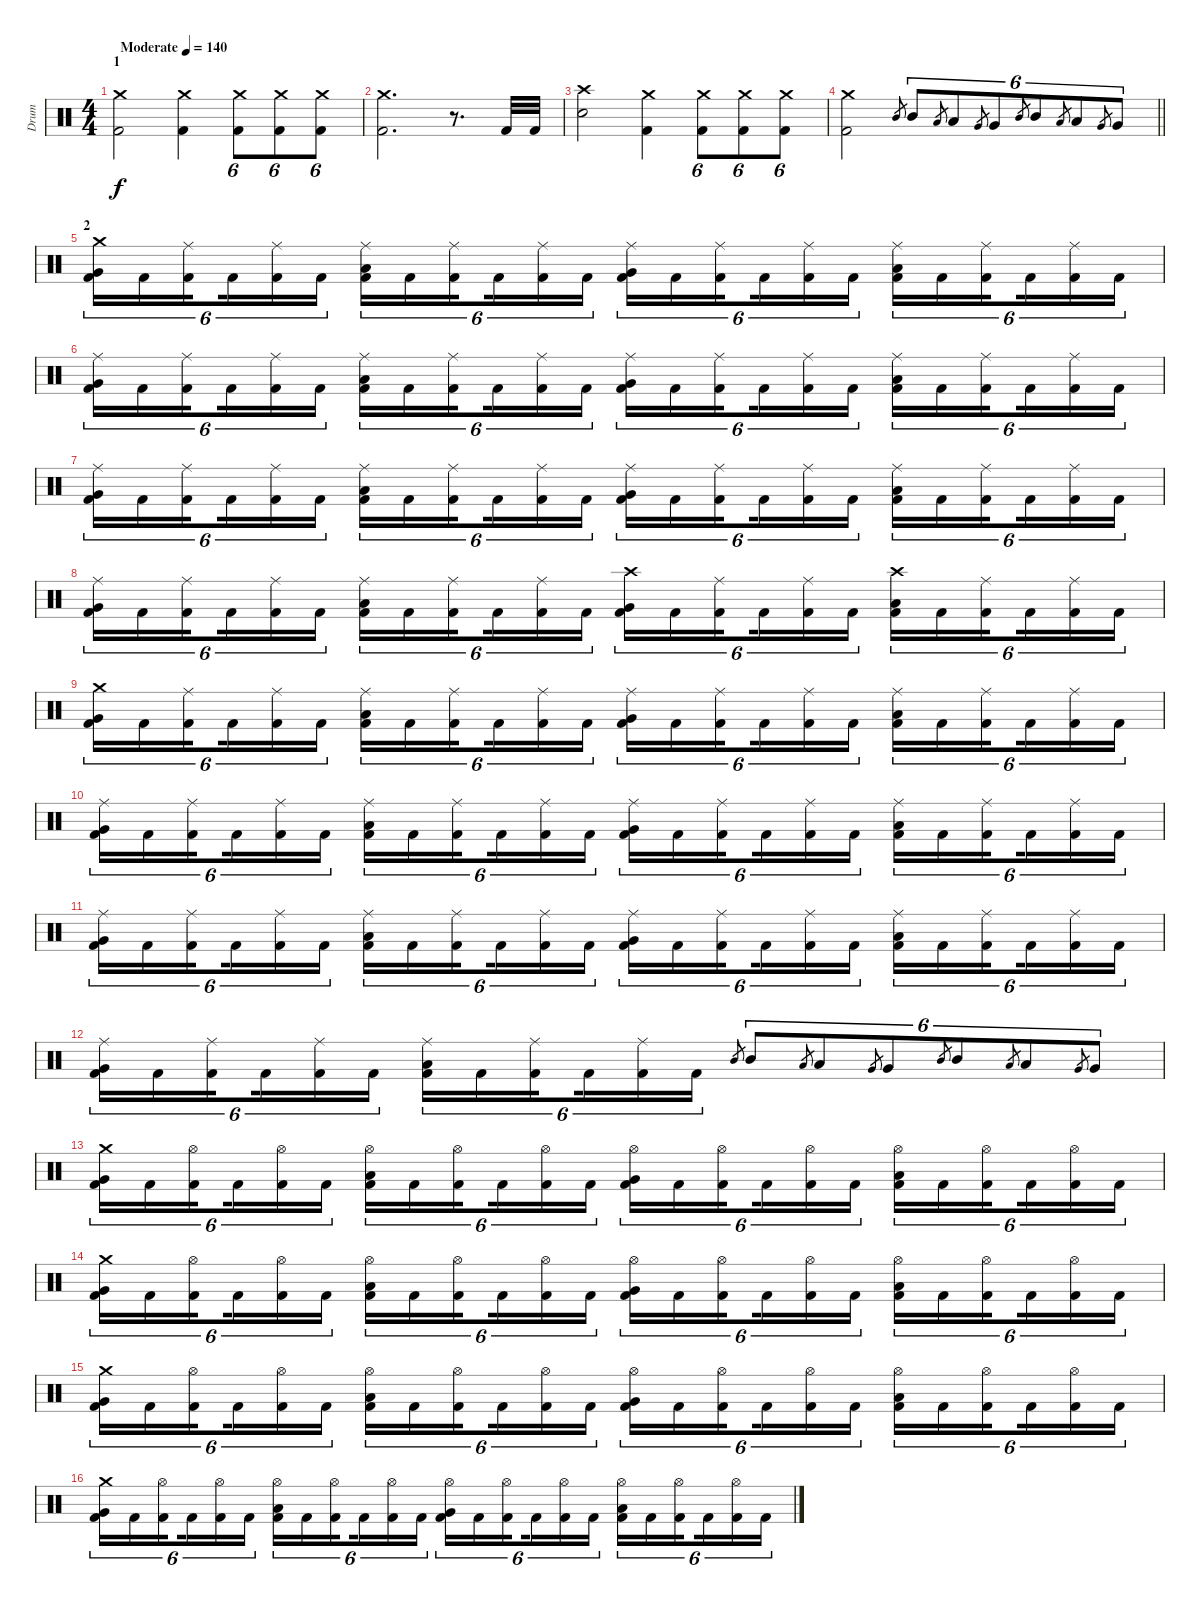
\track ("Drum" "Drum") {instrument percussion}
\staff {score}
\articulation defaults
\ts (4 4)
\section ("" "1")
\tempo (140 "Moderate")
\clef neutral
\ks c
("Crash medium (hit)" "Kick (hit) 2").2{dy f} ("Crash medium (hit)" "Kick (hit) 2").4 ("Crash medium (hit)" "Kick (hit) 2").8{tu (6 4)} ("Crash medium (hit)" "Kick (hit) 2").8{tu (6 4)} ("Crash medium (hit)" "Kick (hit) 2").8{tu (6 4)} |
("Crash medium (hit)" "Kick (hit) 2").2{d} r.8{d} "Kick (hit) 2".32 "Kick (hit) 2".32 |
("Crash high (hit)" "Electric Snare (hit)").2 ("Crash medium (hit)" "Kick (hit) 2").4 ("Crash medium (hit)" "Kick (hit) 2").8{tu (6 4)} ("Crash medium (hit)" "Kick (hit) 2").8{tu (6 4)} ("Crash medium (hit)" "Kick (hit) 2").8{tu (6 4)} |
\barLineRight lightlight
("Crash medium (hit)" "Kick (hit) 2").2 "Mid Tom (hit)".8{gr} "Mid Tom (hit)".8{tu (6 4)} "Low Tom (hit)".8{gr} "Low Tom (hit)".8{tu (6 4)} "Very Low Tom (hit)".8{gr} "Very Low Tom (hit)".8{tu (6 4)} "Mid Tom (hit)".8{gr} "Mid Tom (hit)".8{tu (6 4)} "Low Tom (hit)".8{gr} "Low Tom (hit)".8{tu (6 4)} "Very Low Tom (hit)".8{gr} "Very Low Tom (hit)".8{tu (6 4)} |
\section ("" "2")
("Crash medium (hit)" "Very Low Tom (hit)" "Kick (hit) 2").16{tu (6 4)} "Kick (hit) 2".16{tu (6 4)} ("Ride (middle)" "Kick (hit) 2").16{tu (6 4) beam splitsecondary} "Kick (hit) 2".16{tu (6 4)} ("Ride (middle)" "Kick (hit) 2").16{tu (6 4)} "Kick (hit) 2".16{tu (6 4)} ("Ride (middle)" "Low Tom (hit)" "Kick (hit) 2").16{tu (6 4)} "Kick (hit) 2".16{tu (6 4)} ("Ride (middle)" "Kick (hit) 2").16{tu (6 4) beam splitsecondary} "Kick (hit) 2".16{tu (6 4)} ("Ride (middle)" "Kick (hit) 2").16{tu (6 4)} "Kick (hit) 2".16{tu (6 4)} ("Ride (middle)" "Very Low Tom (hit)" "Kick (hit) 2").16{tu (6 4)} "Kick (hit) 2".16{tu (6 4)} ("Ride (middle)" "Kick (hit) 2").16{tu (6 4) beam splitsecondary} "Kick (hit) 2".16{tu (6 4)} ("Ride (middle)" "Kick (hit) 2").16{tu (6 4)} "Kick (hit) 2".16{tu (6 4)} ("Ride (middle)" "Low Tom (hit)" "Kick (hit) 2").16{tu (6 4)} "Kick (hit) 2".16{tu (6 4)} ("Ride (middle)" "Kick (hit) 2").16{tu (6 4) beam splitsecondary} "Kick (hit) 2".16{tu (6 4)} ("Ride (middle)" "Kick (hit) 2").16{tu (6 4)} "Kick (hit) 2".16{tu (6 4)} |
("Ride (middle)" "Very Low Tom (hit)" "Kick (hit) 2").16{tu (6 4)} "Kick (hit) 2".16{tu (6 4)} ("Ride (middle)" "Kick (hit) 2").16{tu (6 4) beam splitsecondary} "Kick (hit) 2".16{tu (6 4)} ("Ride (middle)" "Kick (hit) 2").16{tu (6 4)} "Kick (hit) 2".16{tu (6 4)} ("Ride (middle)" "Low Tom (hit)" "Kick (hit) 2").16{tu (6 4)} "Kick (hit) 2".16{tu (6 4)} ("Ride (middle)" "Kick (hit) 2").16{tu (6 4) beam splitsecondary} "Kick (hit) 2".16{tu (6 4)} ("Ride (middle)" "Kick (hit) 2").16{tu (6 4)} "Kick (hit) 2".16{tu (6 4)} ("Ride (middle)" "Very Low Tom (hit)" "Kick (hit) 2").16{tu (6 4)} "Kick (hit) 2".16{tu (6 4)} ("Ride (middle)" "Kick (hit) 2").16{tu (6 4) beam splitsecondary} "Kick (hit) 2".16{tu (6 4)} ("Ride (middle)" "Kick (hit) 2").16{tu (6 4)} "Kick (hit) 2".16{tu (6 4)} ("Ride (middle)" "Low Tom (hit)" "Kick (hit) 2").16{tu (6 4)} "Kick (hit) 2".16{tu (6 4)} ("Ride (middle)" "Kick (hit) 2").16{tu (6 4) beam splitsecondary} "Kick (hit) 2".16{tu (6 4)} ("Ride (middle)" "Kick (hit) 2").16{tu (6 4)} "Kick (hit) 2".16{tu (6 4)} |
("Ride (middle)" "Very Low Tom (hit)" "Kick (hit) 2").16{tu (6 4)} "Kick (hit) 2".16{tu (6 4)} ("Ride (middle)" "Kick (hit) 2").16{tu (6 4) beam splitsecondary} "Kick (hit) 2".16{tu (6 4)} ("Ride (middle)" "Kick (hit) 2").16{tu (6 4)} "Kick (hit) 2".16{tu (6 4)} ("Ride (middle)" "Low Tom (hit)" "Kick (hit) 2").16{tu (6 4)} "Kick (hit) 2".16{tu (6 4)} ("Ride (middle)" "Kick (hit) 2").16{tu (6 4) beam splitsecondary} "Kick (hit) 2".16{tu (6 4)} ("Ride (middle)" "Kick (hit) 2").16{tu (6 4)} "Kick (hit) 2".16{tu (6 4)} ("Ride (middle)" "Very Low Tom (hit)" "Kick (hit) 2").16{tu (6 4)} "Kick (hit) 2".16{tu (6 4)} ("Ride (middle)" "Kick (hit) 2").16{tu (6 4) beam splitsecondary} "Kick (hit) 2".16{tu (6 4)} ("Ride (middle)" "Kick (hit) 2").16{tu (6 4)} "Kick (hit) 2".16{tu (6 4)} ("Ride (middle)" "Low Tom (hit)" "Kick (hit) 2").16{tu (6 4)} "Kick (hit) 2".16{tu (6 4)} ("Ride (middle)" "Kick (hit) 2").16{tu (6 4) beam splitsecondary} "Kick (hit) 2".16{tu (6 4)} ("Ride (middle)" "Kick (hit) 2").16{tu (6 4)} "Kick (hit) 2".16{tu (6 4)} |
("Ride (middle)" "Very Low Tom (hit)" "Kick (hit) 2").16{tu (6 4)} "Kick (hit) 2".16{tu (6 4)} ("Ride (middle)" "Kick (hit) 2").16{tu (6 4) beam splitsecondary} "Kick (hit) 2".16{tu (6 4)} ("Ride (middle)" "Kick (hit) 2").16{tu (6 4)} "Kick (hit) 2".16{tu (6 4)} ("Ride (middle)" "Low Tom (hit)" "Kick (hit) 2").16{tu (6 4)} "Kick (hit) 2".16{tu (6 4)} ("Ride (middle)" "Kick (hit) 2").16{tu (6 4) beam splitsecondary} "Kick (hit) 2".16{tu (6 4)} ("Ride (middle)" "Kick (hit) 2").16{tu (6 4)} "Kick (hit) 2".16{tu (6 4)} ("Crash high (hit)" "Very Low Tom (hit)" "Kick (hit) 2").16{tu (6 4)} "Kick (hit) 2".16{tu (6 4)} ("Ride (middle)" "Kick (hit) 2").16{tu (6 4) beam splitsecondary} "Kick (hit) 2".16{tu (6 4)} ("Ride (middle)" "Kick (hit) 2").16{tu (6 4)} "Kick (hit) 2".16{tu (6 4)} ("Crash high (hit)" "Low Tom (hit)" "Kick (hit) 2").16{tu (6 4)} "Kick (hit) 2".16{tu (6 4)} ("Ride (middle)" "Kick (hit) 2").16{tu (6 4) beam splitsecondary} "Kick (hit) 2".16{tu (6 4)} ("Ride (middle)" "Kick (hit) 2").16{tu (6 4)} "Kick (hit) 2".16{tu (6 4)} |
("Crash medium (hit)" "Very Low Tom (hit)" "Kick (hit) 2").16{tu (6 4)} "Kick (hit) 2".16{tu (6 4)} ("Ride (middle)" "Kick (hit) 2").16{tu (6 4) beam splitsecondary} "Kick (hit) 2".16{tu (6 4)} ("Ride (middle)" "Kick (hit) 2").16{tu (6 4)} "Kick (hit) 2".16{tu (6 4)} ("Ride (middle)" "Low Tom (hit)" "Kick (hit) 2").16{tu (6 4)} "Kick (hit) 2".16{tu (6 4)} ("Ride (middle)" "Kick (hit) 2").16{tu (6 4) beam splitsecondary} "Kick (hit) 2".16{tu (6 4)} ("Ride (middle)" "Kick (hit) 2").16{tu (6 4)} "Kick (hit) 2".16{tu (6 4)} ("Ride (middle)" "Very Low Tom (hit)" "Kick (hit) 2").16{tu (6 4)} "Kick (hit) 2".16{tu (6 4)} ("Ride (middle)" "Kick (hit) 2").16{tu (6 4) beam splitsecondary} "Kick (hit) 2".16{tu (6 4)} ("Ride (middle)" "Kick (hit) 2").16{tu (6 4)} "Kick (hit) 2".16{tu (6 4)} ("Ride (middle)" "Low Tom (hit)" "Kick (hit) 2").16{tu (6 4)} "Kick (hit) 2".16{tu (6 4)} ("Ride (middle)" "Kick (hit) 2").16{tu (6 4) beam splitsecondary} "Kick (hit) 2".16{tu (6 4)} ("Ride (middle)" "Kick (hit) 2").16{tu (6 4)} "Kick (hit) 2".16{tu (6 4)} |
("Ride (middle)" "Very Low Tom (hit)" "Kick (hit) 2").16{tu (6 4)} "Kick (hit) 2".16{tu (6 4)} ("Ride (middle)" "Kick (hit) 2").16{tu (6 4) beam splitsecondary} "Kick (hit) 2".16{tu (6 4)} ("Ride (middle)" "Kick (hit) 2").16{tu (6 4)} "Kick (hit) 2".16{tu (6 4)} ("Ride (middle)" "Low Tom (hit)" "Kick (hit) 2").16{tu (6 4)} "Kick (hit) 2".16{tu (6 4)} ("Ride (middle)" "Kick (hit) 2").16{tu (6 4) beam splitsecondary} "Kick (hit) 2".16{tu (6 4)} ("Ride (middle)" "Kick (hit) 2").16{tu (6 4)} "Kick (hit) 2".16{tu (6 4)} ("Ride (middle)" "Very Low Tom (hit)" "Kick (hit) 2").16{tu (6 4)} "Kick (hit) 2".16{tu (6 4)} ("Ride (middle)" "Kick (hit) 2").16{tu (6 4) beam splitsecondary} "Kick (hit) 2".16{tu (6 4)} ("Ride (middle)" "Kick (hit) 2").16{tu (6 4)} "Kick (hit) 2".16{tu (6 4)} ("Ride (middle)" "Low Tom (hit)" "Kick (hit) 2").16{tu (6 4)} "Kick (hit) 2".16{tu (6 4)} ("Ride (middle)" "Kick (hit) 2").16{tu (6 4) beam splitsecondary} "Kick (hit) 2".16{tu (6 4)} ("Ride (middle)" "Kick (hit) 2").16{tu (6 4)} "Kick (hit) 2".16{tu (6 4)} |
("Ride (middle)" "Very Low Tom (hit)" "Kick (hit) 2").16{tu (6 4)} "Kick (hit) 2".16{tu (6 4)} ("Ride (middle)" "Kick (hit) 2").16{tu (6 4) beam splitsecondary} "Kick (hit) 2".16{tu (6 4)} ("Ride (middle)" "Kick (hit) 2").16{tu (6 4)} "Kick (hit) 2".16{tu (6 4)} ("Ride (middle)" "Low Tom (hit)" "Kick (hit) 2").16{tu (6 4)} "Kick (hit) 2".16{tu (6 4)} ("Ride (middle)" "Kick (hit) 2").16{tu (6 4) beam splitsecondary} "Kick (hit) 2".16{tu (6 4)} ("Ride (middle)" "Kick (hit) 2").16{tu (6 4)} "Kick (hit) 2".16{tu (6 4)} ("Ride (middle)" "Very Low Tom (hit)" "Kick (hit) 2").16{tu (6 4)} "Kick (hit) 2".16{tu (6 4)} ("Ride (middle)" "Kick (hit) 2").16{tu (6 4) beam splitsecondary} "Kick (hit) 2".16{tu (6 4)} ("Ride (middle)" "Kick (hit) 2").16{tu (6 4)} "Kick (hit) 2".16{tu (6 4)} ("Ride (middle)" "Low Tom (hit)" "Kick (hit) 2").16{tu (6 4)} "Kick (hit) 2".16{tu (6 4)} ("Ride (middle)" "Kick (hit) 2").16{tu (6 4) beam splitsecondary} "Kick (hit) 2".16{tu (6 4)} ("Ride (middle)" "Kick (hit) 2").16{tu (6 4)} "Kick (hit) 2".16{tu (6 4)} |
("Ride (middle)" "Very Low Tom (hit)" "Kick (hit) 2").16{tu (6 4)} "Kick (hit) 2".16{tu (6 4)} ("Ride (middle)" "Kick (hit) 2").16{tu (6 4) beam splitsecondary} "Kick (hit) 2".16{tu (6 4)} ("Ride (middle)" "Kick (hit) 2").16{tu (6 4)} "Kick (hit) 2".16{tu (6 4)} ("Ride (middle)" "Low Tom (hit)" "Kick (hit) 2").16{tu (6 4)} "Kick (hit) 2".16{tu (6 4)} ("Ride (middle)" "Kick (hit) 2").16{tu (6 4) beam splitsecondary} "Kick (hit) 2".16{tu (6 4)} ("Ride (middle)" "Kick (hit) 2").16{tu (6 4)} "Kick (hit) 2".16{tu (6 4)} "Mid Tom (hit)".8{gr} "Mid Tom (hit)".8{tu (6 4)} "Low Tom (hit)".8{gr} "Low Tom (hit)".8{tu (6 4)} "Very Low Tom (hit)".8{gr} "Very Low Tom (hit)".8{tu (6 4)} "Mid Tom (hit)".8{gr} "Mid Tom (hit)".8{tu (6 4)} "Low Tom (hit)".8{gr} "Low Tom (hit)".8{tu (6 4)} "Very Low Tom (hit)".8{gr} "Very Low Tom (hit)".8{tu (6 4)} |
("Crash medium (hit)" "Very Low Tom (hit)" "Kick (hit) 2").16{tu (6 4)} "Kick (hit) 2".16{tu (6 4)} ("Hi-Hat (open)" "Kick (hit) 2").16{tu (6 4) beam splitsecondary} "Kick (hit) 2".16{tu (6 4)} ("Hi-Hat (open)" "Kick (hit) 2").16{tu (6 4)} "Kick (hit) 2".16{tu (6 4)} ("Hi-Hat (open)" "Low Tom (hit)" "Kick (hit) 2").16{tu (6 4)} "Kick (hit) 2".16{tu (6 4)} ("Hi-Hat (open)" "Kick (hit) 2").16{tu (6 4) beam splitsecondary} "Kick (hit) 2".16{tu (6 4)} ("Hi-Hat (open)" "Kick (hit) 2").16{tu (6 4)} "Kick (hit) 2".16{tu (6 4)} ("Hi-Hat (open)" "Very Low Tom (hit)" "Kick (hit) 2").16{tu (6 4)} "Kick (hit) 2".16{tu (6 4)} ("Hi-Hat (open)" "Kick (hit) 2").16{tu (6 4) beam splitsecondary} "Kick (hit) 2".16{tu (6 4)} ("Hi-Hat (open)" "Kick (hit) 2").16{tu (6 4)} "Kick (hit) 2".16{tu (6 4)} ("Hi-Hat (open)" "Low Tom (hit)" "Kick (hit) 2").16{tu (6 4)} "Kick (hit) 2".16{tu (6 4)} ("Hi-Hat (open)" "Kick (hit) 2").16{tu (6 4) beam splitsecondary} "Kick (hit) 2".16{tu (6 4)} ("Hi-Hat (open)" "Kick (hit) 2").16{tu (6 4)} "Kick (hit) 2".16{tu (6 4)} |
("Crash medium (hit)" "Very Low Tom (hit)" "Kick (hit) 2").16{tu (6 4)} "Kick (hit) 2".16{tu (6 4)} ("Hi-Hat (open)" "Kick (hit) 2").16{tu (6 4) beam splitsecondary} "Kick (hit) 2".16{tu (6 4)} ("Hi-Hat (open)" "Kick (hit) 2").16{tu (6 4)} "Kick (hit) 2".16{tu (6 4)} ("Hi-Hat (open)" "Low Tom (hit)" "Kick (hit) 2").16{tu (6 4)} "Kick (hit) 2".16{tu (6 4)} ("Hi-Hat (open)" "Kick (hit) 2").16{tu (6 4) beam splitsecondary} "Kick (hit) 2".16{tu (6 4)} ("Hi-Hat (open)" "Kick (hit) 2").16{tu (6 4)} "Kick (hit) 2".16{tu (6 4)} ("Hi-Hat (open)" "Very Low Tom (hit)" "Kick (hit) 2").16{tu (6 4)} "Kick (hit) 2".16{tu (6 4)} ("Hi-Hat (open)" "Kick (hit) 2").16{tu (6 4) beam splitsecondary} "Kick (hit) 2".16{tu (6 4)} ("Hi-Hat (open)" "Kick (hit) 2").16{tu (6 4)} "Kick (hit) 2".16{tu (6 4)} ("Hi-Hat (open)" "Low Tom (hit)" "Kick (hit) 2").16{tu (6 4)} "Kick (hit) 2".16{tu (6 4)} ("Hi-Hat (open)" "Kick (hit) 2").16{tu (6 4) beam splitsecondary} "Kick (hit) 2".16{tu (6 4)} ("Hi-Hat (open)" "Kick (hit) 2").16{tu (6 4)} "Kick (hit) 2".16{tu (6 4)} |
("Crash medium (hit)" "Very Low Tom (hit)" "Kick (hit) 2").16{tu (6 4)} "Kick (hit) 2".16{tu (6 4)} ("Hi-Hat (open)" "Kick (hit) 2").16{tu (6 4) beam splitsecondary} "Kick (hit) 2".16{tu (6 4)} ("Hi-Hat (open)" "Kick (hit) 2").16{tu (6 4)} "Kick (hit) 2".16{tu (6 4)} ("Hi-Hat (open)" "Low Tom (hit)" "Kick (hit) 2").16{tu (6 4)} "Kick (hit) 2".16{tu (6 4)} ("Hi-Hat (open)" "Kick (hit) 2").16{tu (6 4) beam splitsecondary} "Kick (hit) 2".16{tu (6 4)} ("Hi-Hat (open)" "Kick (hit) 2").16{tu (6 4)} "Kick (hit) 2".16{tu (6 4)} ("Hi-Hat (open)" "Very Low Tom (hit)" "Kick (hit) 2").16{tu (6 4)} "Kick (hit) 2".16{tu (6 4)} ("Hi-Hat (open)" "Kick (hit) 2").16{tu (6 4) beam splitsecondary} "Kick (hit) 2".16{tu (6 4)} ("Hi-Hat (open)" "Kick (hit) 2").16{tu (6 4)} "Kick (hit) 2".16{tu (6 4)} ("Hi-Hat (open)" "Low Tom (hit)" "Kick (hit) 2").16{tu (6 4)} "Kick (hit) 2".16{tu (6 4)} ("Hi-Hat (open)" "Kick (hit) 2").16{tu (6 4) beam splitsecondary} "Kick (hit) 2".16{tu (6 4)} ("Hi-Hat (open)" "Kick (hit) 2").16{tu (6 4)} "Kick (hit) 2".16{tu (6 4)} |
("Crash medium (hit)" "Very Low Tom (hit)" "Kick (hit) 2").16{tu (6 4)} "Kick (hit) 2".16{tu (6 4)} ("Hi-Hat (open)" "Kick (hit) 2").16{tu (6 4) beam splitsecondary} "Kick (hit) 2".16{tu (6 4)} ("Hi-Hat (open)" "Kick (hit) 2").16{tu (6 4)} "Kick (hit) 2".16{tu (6 4)} ("Hi-Hat (open)" "Low Tom (hit)" "Kick (hit) 2").16{tu (6 4)} "Kick (hit) 2".16{tu (6 4)} ("Hi-Hat (open)" "Kick (hit) 2").16{tu (6 4) beam splitsecondary} "Kick (hit) 2".16{tu (6 4)} ("Hi-Hat (open)" "Kick (hit) 2").16{tu (6 4)} "Kick (hit) 2".16{tu (6 4)} ("Hi-Hat (open)" "Very Low Tom (hit)" "Kick (hit) 2").16{tu (6 4)} "Kick (hit) 2".16{tu (6 4)} ("Hi-Hat (open)" "Kick (hit) 2").16{tu (6 4) beam splitsecondary} "Kick (hit) 2".16{tu (6 4)} ("Hi-Hat (open)" "Kick (hit) 2").16{tu (6 4)} "Kick (hit) 2".16{tu (6 4)} ("Hi-Hat (open)" "Low Tom (hit)" "Kick (hit) 2").16{tu (6 4)} "Kick (hit) 2".16{tu (6 4)} ("Hi-Hat (open)" "Kick (hit) 2").16{tu (6 4) beam splitsecondary} "Kick (hit) 2".16{tu (6 4)} ("Hi-Hat (open)" "Kick (hit) 2").16{tu (6 4)} "Kick (hit) 2".16{tu (6 4)}
